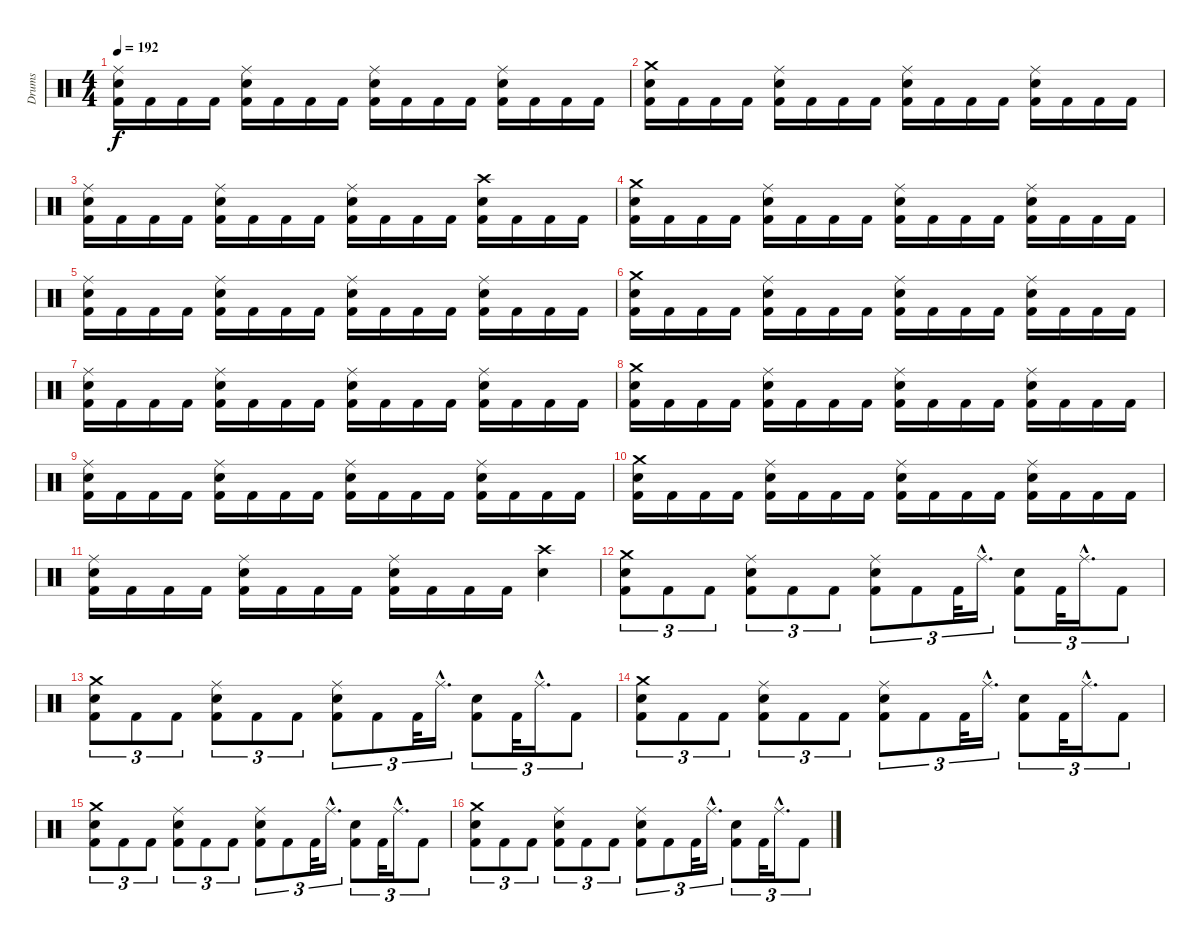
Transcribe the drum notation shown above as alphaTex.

\track ("Drums" "Drums") {instrument percussion}
\staff {score}
\articulation defaults
\ts (4 4)
\tempo 192
\clef neutral
\ks c
("Ride (middle)" "Electric Snare (hit)" "Kick (hit) 2").16{dy f} "Kick (hit) 2".16 "Kick (hit) 2".16 "Kick (hit) 2".16 ("Ride (middle)" "Electric Snare (hit)" "Kick (hit) 2").16 "Kick (hit) 2".16 "Kick (hit) 2".16 "Kick (hit) 2".16 ("Ride (middle)" "Electric Snare (hit)" "Kick (hit) 2").16 "Kick (hit) 2".16 "Kick (hit) 2".16 "Kick (hit) 2".16 ("Ride (middle)" "Electric Snare (hit)" "Kick (hit) 2").16 "Kick (hit) 2".16 "Kick (hit) 2".16 "Kick (hit) 2".16 |
("Crash medium (hit)" "Electric Snare (hit)" "Kick (hit) 2").16 "Kick (hit) 2".16 "Kick (hit) 2".16 "Kick (hit) 2".16 ("Ride (middle)" "Electric Snare (hit)" "Kick (hit) 2").16 "Kick (hit) 2".16 "Kick (hit) 2".16 "Kick (hit) 2".16 ("Ride (middle)" "Electric Snare (hit)" "Kick (hit) 2").16 "Kick (hit) 2".16 "Kick (hit) 2".16 "Kick (hit) 2".16 ("Ride (middle)" "Electric Snare (hit)" "Kick (hit) 2").16 "Kick (hit) 2".16 "Kick (hit) 2".16 "Kick (hit) 2".16 |
("Ride (middle)" "Electric Snare (hit)" "Kick (hit) 2").16 "Kick (hit) 2".16 "Kick (hit) 2".16 "Kick (hit) 2".16 ("Ride (middle)" "Electric Snare (hit)" "Kick (hit) 2").16 "Kick (hit) 2".16 "Kick (hit) 2".16 "Kick (hit) 2".16 ("Ride (middle)" "Electric Snare (hit)" "Kick (hit) 2").16 "Kick (hit) 2".16 "Kick (hit) 2".16 "Kick (hit) 2".16 ("Crash high (hit)" "Electric Snare (hit)" "Kick (hit) 2").16 "Kick (hit) 2".16 "Kick (hit) 2".16 "Kick (hit) 2".16 |
("Crash medium (hit)" "Electric Snare (hit)" "Kick (hit) 2").16 "Kick (hit) 2".16 "Kick (hit) 2".16 "Kick (hit) 2".16 ("Ride (middle)" "Electric Snare (hit)" "Kick (hit) 2").16 "Kick (hit) 2".16 "Kick (hit) 2".16 "Kick (hit) 2".16 ("Ride (middle)" "Electric Snare (hit)" "Kick (hit) 2").16 "Kick (hit) 2".16 "Kick (hit) 2".16 "Kick (hit) 2".16 ("Ride (middle)" "Electric Snare (hit)" "Kick (hit) 2").16 "Kick (hit) 2".16 "Kick (hit) 2".16 "Kick (hit) 2".16 |
("Ride (middle)" "Electric Snare (hit)" "Kick (hit) 2").16 "Kick (hit) 2".16 "Kick (hit) 2".16 "Kick (hit) 2".16 ("Ride (middle)" "Electric Snare (hit)" "Kick (hit) 2").16 "Kick (hit) 2".16 "Kick (hit) 2".16 "Kick (hit) 2".16 ("Ride (middle)" "Electric Snare (hit)" "Kick (hit) 2").16 "Kick (hit) 2".16 "Kick (hit) 2".16 "Kick (hit) 2".16 ("Ride (middle)" "Electric Snare (hit)" "Kick (hit) 2").16 "Kick (hit) 2".16 "Kick (hit) 2".16 "Kick (hit) 2".16 |
("Crash medium (hit)" "Electric Snare (hit)" "Kick (hit) 2").16 "Kick (hit) 2".16 "Kick (hit) 2".16 "Kick (hit) 2".16 ("Ride (middle)" "Electric Snare (hit)" "Kick (hit) 2").16 "Kick (hit) 2".16 "Kick (hit) 2".16 "Kick (hit) 2".16 ("Ride (middle)" "Electric Snare (hit)" "Kick (hit) 2").16 "Kick (hit) 2".16 "Kick (hit) 2".16 "Kick (hit) 2".16 ("Ride (middle)" "Electric Snare (hit)" "Kick (hit) 2").16 "Kick (hit) 2".16 "Kick (hit) 2".16 "Kick (hit) 2".16 |
("Ride (middle)" "Electric Snare (hit)" "Kick (hit) 2").16 "Kick (hit) 2".16 "Kick (hit) 2".16 "Kick (hit) 2".16 ("Ride (middle)" "Electric Snare (hit)" "Kick (hit) 2").16 "Kick (hit) 2".16 "Kick (hit) 2".16 "Kick (hit) 2".16 ("Ride (middle)" "Electric Snare (hit)" "Kick (hit) 2").16 "Kick (hit) 2".16 "Kick (hit) 2".16 "Kick (hit) 2".16 ("Ride (middle)" "Electric Snare (hit)" "Kick (hit) 2").16 "Kick (hit) 2".16 "Kick (hit) 2".16 "Kick (hit) 2".16 |
("Crash medium (hit)" "Electric Snare (hit)" "Kick (hit) 2").16 "Kick (hit) 2".16 "Kick (hit) 2".16 "Kick (hit) 2".16 ("Ride (middle)" "Electric Snare (hit)" "Kick (hit) 2").16 "Kick (hit) 2".16 "Kick (hit) 2".16 "Kick (hit) 2".16 ("Ride (middle)" "Electric Snare (hit)" "Kick (hit) 2").16 "Kick (hit) 2".16 "Kick (hit) 2".16 "Kick (hit) 2".16 ("Ride (middle)" "Electric Snare (hit)" "Kick (hit) 2").16 "Kick (hit) 2".16 "Kick (hit) 2".16 "Kick (hit) 2".16 |
("Ride (middle)" "Electric Snare (hit)" "Kick (hit) 2").16 "Kick (hit) 2".16 "Kick (hit) 2".16 "Kick (hit) 2".16 ("Ride (middle)" "Electric Snare (hit)" "Kick (hit) 2").16 "Kick (hit) 2".16 "Kick (hit) 2".16 "Kick (hit) 2".16 ("Ride (middle)" "Electric Snare (hit)" "Kick (hit) 2").16 "Kick (hit) 2".16 "Kick (hit) 2".16 "Kick (hit) 2".16 ("Ride (middle)" "Electric Snare (hit)" "Kick (hit) 2").16 "Kick (hit) 2".16 "Kick (hit) 2".16 "Kick (hit) 2".16 |
("Crash medium (hit)" "Electric Snare (hit)" "Kick (hit) 2").16 "Kick (hit) 2".16 "Kick (hit) 2".16 "Kick (hit) 2".16 ("Ride (middle)" "Electric Snare (hit)" "Kick (hit) 2").16 "Kick (hit) 2".16 "Kick (hit) 2".16 "Kick (hit) 2".16 ("Ride (middle)" "Electric Snare (hit)" "Kick (hit) 2").16 "Kick (hit) 2".16 "Kick (hit) 2".16 "Kick (hit) 2".16 ("Ride (middle)" "Electric Snare (hit)" "Kick (hit) 2").16 "Kick (hit) 2".16 "Kick (hit) 2".16 "Kick (hit) 2".16 |
("Ride (middle)" "Electric Snare (hit)" "Kick (hit) 2").16 "Kick (hit) 2".16 "Kick (hit) 2".16 "Kick (hit) 2".16 ("Ride (middle)" "Electric Snare (hit)" "Kick (hit) 2").16 "Kick (hit) 2".16 "Kick (hit) 2".16 "Kick (hit) 2".16 ("Ride (middle)" "Electric Snare (hit)" "Kick (hit) 2").16 "Kick (hit) 2".16 "Kick (hit) 2".16 "Kick (hit) 2".16 ("Crash high (hit)" "Electric Snare (hit)").4 |
("Crash medium (hit)" "Electric Snare (hit)" "Kick (hit) 2").8{tu (3 2)} "Kick (hit) 2".8{tu (3 2)} "Kick (hit) 2".8{tu (3 2)} ("Ride (middle)" "Electric Snare (hit)" "Kick (hit) 2").8{tu (3 2)} "Kick (hit) 2".8{tu (3 2)} "Kick (hit) 2".8{tu (3 2)} ("Ride (middle)" "Electric Snare (hit)" "Kick (hit) 2").8{tu (3 2)} "Kick (hit) 2".8{tu (3 2)} "Kick (hit) 2".32{tu (3 2)} "Ride (middle)"{hac}.16{d tu (3 2)} ("Electric Snare (hit)" "Kick (hit) 2").8{tu (3 2)} "Kick (hit) 2".32{tu (3 2)} "Ride (middle)"{hac}.16{d tu (3 2)} "Kick (hit) 2".8{tu (3 2)} |
("Crash medium (hit)" "Electric Snare (hit)" "Kick (hit) 2").8{tu (3 2)} "Kick (hit) 2".8{tu (3 2)} "Kick (hit) 2".8{tu (3 2)} ("Ride (middle)" "Electric Snare (hit)" "Kick (hit) 2").8{tu (3 2)} "Kick (hit) 2".8{tu (3 2)} "Kick (hit) 2".8{tu (3 2)} ("Ride (middle)" "Electric Snare (hit)" "Kick (hit) 2").8{tu (3 2)} "Kick (hit) 2".8{tu (3 2)} "Kick (hit) 2".32{tu (3 2)} "Ride (middle)"{hac}.16{d tu (3 2)} ("Electric Snare (hit)" "Kick (hit) 2").8{tu (3 2)} "Kick (hit) 2".32{tu (3 2)} "Ride (middle)"{hac}.16{d tu (3 2)} "Kick (hit) 2".8{tu (3 2)} |
("Crash medium (hit)" "Electric Snare (hit)" "Kick (hit) 2").8{tu (3 2)} "Kick (hit) 2".8{tu (3 2)} "Kick (hit) 2".8{tu (3 2)} ("Ride (middle)" "Electric Snare (hit)" "Kick (hit) 2").8{tu (3 2)} "Kick (hit) 2".8{tu (3 2)} "Kick (hit) 2".8{tu (3 2)} ("Ride (middle)" "Electric Snare (hit)" "Kick (hit) 2").8{tu (3 2)} "Kick (hit) 2".8{tu (3 2)} "Kick (hit) 2".32{tu (3 2)} "Ride (middle)"{hac}.16{d tu (3 2)} ("Electric Snare (hit)" "Kick (hit) 2").8{tu (3 2)} "Kick (hit) 2".32{tu (3 2)} "Ride (middle)"{hac}.16{d tu (3 2)} "Kick (hit) 2".8{tu (3 2)} |
("Crash medium (hit)" "Electric Snare (hit)" "Kick (hit) 2").8{tu (3 2)} "Kick (hit) 2".8{tu (3 2)} "Kick (hit) 2".8{tu (3 2)} ("Ride (middle)" "Electric Snare (hit)" "Kick (hit) 2").8{tu (3 2)} "Kick (hit) 2".8{tu (3 2)} "Kick (hit) 2".8{tu (3 2)} ("Ride (middle)" "Electric Snare (hit)" "Kick (hit) 2").8{tu (3 2)} "Kick (hit) 2".8{tu (3 2)} "Kick (hit) 2".32{tu (3 2)} "Ride (middle)"{hac}.16{d tu (3 2)} ("Electric Snare (hit)" "Kick (hit) 2").8{tu (3 2)} "Kick (hit) 2".32{tu (3 2)} "Ride (middle)"{hac}.16{d tu (3 2)} "Kick (hit) 2".8{tu (3 2)} |
("Crash medium (hit)" "Electric Snare (hit)" "Kick (hit) 2").8{tu (3 2)} "Kick (hit) 2".8{tu (3 2)} "Kick (hit) 2".8{tu (3 2)} ("Ride (middle)" "Electric Snare (hit)" "Kick (hit) 2").8{tu (3 2)} "Kick (hit) 2".8{tu (3 2)} "Kick (hit) 2".8{tu (3 2)} ("Ride (middle)" "Electric Snare (hit)" "Kick (hit) 2").8{tu (3 2)} "Kick (hit) 2".8{tu (3 2)} "Kick (hit) 2".32{tu (3 2)} "Ride (middle)"{hac}.16{d tu (3 2)} ("Electric Snare (hit)" "Kick (hit) 2").8{tu (3 2)} "Kick (hit) 2".32{tu (3 2)} "Ride (middle)"{hac}.16{d tu (3 2)} "Kick (hit) 2".8{tu (3 2)}
